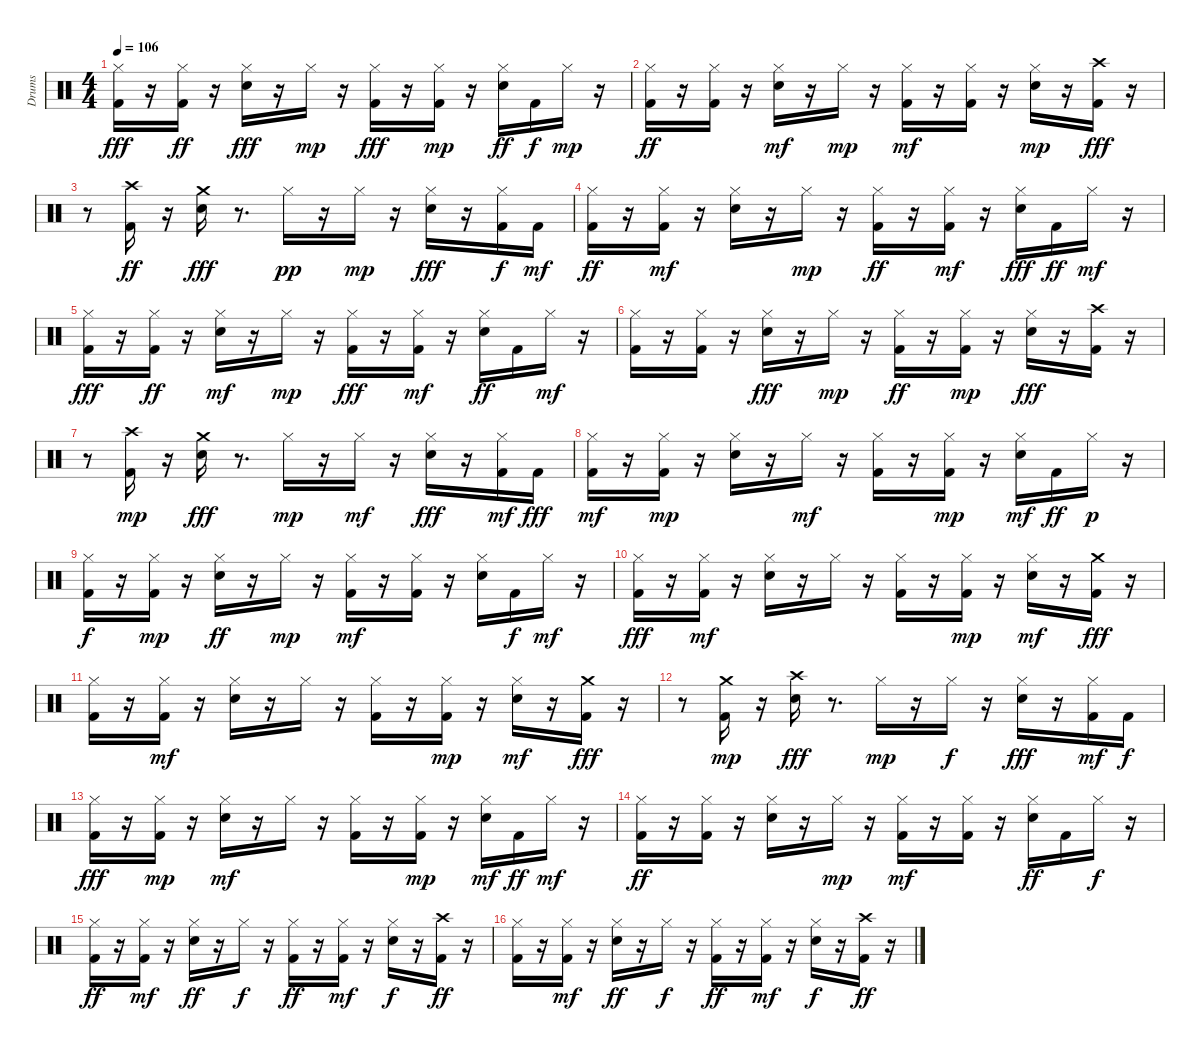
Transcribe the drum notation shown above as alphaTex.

\track ("Drums" "Drums") {instrument percussion}
\staff {score}
\articulation defaults
\ts (4 4)
\tempo 106
\clef neutral
\ks c
("Hi-Hat (closed)" "Kick (hit) 2").16{dy fff} r.16 ("Hi-Hat (closed)" "Kick (hit) 2").16{dy ff} r.16 ("Hi-Hat (closed)" "Snare (hit) 2").16{dy fff} r.16 "Hi-Hat (closed)".16{dy mp} r.16 ("Hi-Hat (closed)" "Kick (hit) 2").16{dy fff} r.16 ("Kick (hit) 2" "Hi-Hat (closed)").16{dy mp} r.16 ("Hi-Hat (closed)" "Snare (hit) 2").16{dy ff} "Kick (hit) 2".16{dy f} "Hi-Hat (closed)".16{dy mp} r.16 |
("Hi-Hat (closed)" "Kick (hit) 2").16{dy ff} r.16 ("Hi-Hat (closed)" "Kick (hit) 2").16 r.16 ("Snare (hit) 2" "Hi-Hat (closed)").16{dy mf} r.16 "Hi-Hat (closed)".16{dy mp} r.16 ("Kick (hit) 2" "Hi-Hat (closed)").16{dy mf} r.16 ("Kick (hit) 2" "Hi-Hat (closed)").16 r.16 ("Snare (hit) 2" "Hi-Hat (closed)").16{dy mp} r.16 ("Crash high (hit)" "Kick (hit) 2").16{dy fff} r.16 |
r.8 ("Crash high (hit)" "Kick (hit) 2").16{dy ff} r.16 ("Crash medium (hit)" "Snare (hit) 2").16{dy fff} r.8{d} "Hi-Hat (closed)".16{dy pp} r.16 "Hi-Hat (closed)".16{dy mp} r.16 ("Hi-Hat (closed)" "Snare (hit) 2").16{dy fff} r.16 ("Kick (hit) 2" "Hi-Hat (closed)").16{dy f} "Kick (hit) 2".16{dy mf} |
("Kick (hit) 2" "Hi-Hat (closed)").16{dy ff} r.16 ("Kick (hit) 2" "Hi-Hat (closed)").16{dy mf} r.16 ("Snare (hit) 2" "Hi-Hat (closed)").16 r.16 "Hi-Hat (closed)".16{dy mp} r.16 ("Hi-Hat (closed)" "Kick (hit) 2").16{dy ff} r.16 ("Hi-Hat (closed)" "Kick (hit) 2").16{dy mf} r.16 ("Snare (hit) 2" "Hi-Hat (closed)").16{dy fff} "Kick (hit) 2".16{dy ff} "Hi-Hat (closed)".16{dy mf} r.16 |
("Hi-Hat (closed)" "Kick (hit) 2").16{dy fff} r.16 ("Hi-Hat (closed)" "Kick (hit) 2").16{dy ff} r.16 ("Snare (hit) 2" "Hi-Hat (closed)").16{dy mf} r.16 "Hi-Hat (closed)".16{dy mp} r.16 ("Kick (hit) 2" "Hi-Hat (closed)").16{dy fff} r.16 ("Kick (hit) 2" "Hi-Hat (closed)").16{dy mf} r.16 ("Snare (hit) 2" "Hi-Hat (closed)").16{dy ff} "Kick (hit) 2".16 "Hi-Hat (closed)".16{dy mf} r.16 |
("Kick (hit) 2" "Hi-Hat (closed)").16 r.16 ("Kick (hit) 2" "Hi-Hat (closed)").16 r.16 ("Snare (hit) 2" "Hi-Hat (closed)").16{dy fff} r.16 "Hi-Hat (closed)".16{dy mp} r.16 ("Kick (hit) 2" "Hi-Hat (closed)").16{dy ff} r.16 ("Hi-Hat (closed)" "Kick (hit) 2").16{dy mp} r.16 ("Snare (hit) 2" "Hi-Hat (closed)").16{dy fff} r.16 ("Crash high (hit)" "Kick (hit) 2").16 r.16 |
r.8 ("Kick (hit) 2" "Crash high (hit)").16{dy mp} r.16 ("Crash medium (hit)" "Snare (hit) 2").16{dy fff} r.8{d} "Hi-Hat (closed)".16{dy mp} r.16 "Hi-Hat (closed)".16{dy mf} r.16 ("Snare (hit) 2" "Hi-Hat (closed)").16{dy fff} r.16 ("Kick (hit) 2" "Hi-Hat (closed)").16{dy mf} "Kick (hit) 2".16{dy fff} |
("Kick (hit) 2" "Hi-Hat (closed)").16{dy mf} r.16 ("Kick (hit) 2" "Hi-Hat (closed)").16{dy mp} r.16 ("Snare (hit) 2" "Hi-Hat (closed)").16 r.16 "Hi-Hat (closed)".16{dy mf} r.16 ("Hi-Hat (closed)" "Kick (hit) 2").16 r.16 ("Hi-Hat (closed)" "Kick (hit) 2").16{dy mp} r.16 ("Hi-Hat (closed)" "Snare (hit) 2").16{dy mf} "Kick (hit) 2".16{dy ff} "Hi-Hat (closed)".16{dy p} r.16 |
("Hi-Hat (closed)" "Kick (hit) 2").16{dy f} r.16 ("Kick (hit) 2" "Hi-Hat (closed)").16{dy mp} r.16 ("Snare (hit) 2" "Hi-Hat (closed)").16{dy ff} r.16 "Hi-Hat (closed)".16{dy mp} r.16 ("Kick (hit) 2" "Hi-Hat (closed)").16{dy mf} r.16 ("Kick (hit) 2" "Hi-Hat (closed)").16 r.16 ("Snare (hit) 2" "Hi-Hat (closed)").16 "Kick (hit) 2".16{dy f} "Hi-Hat (closed)".16{dy mf} r.16 |
("Kick (hit) 2" "Hi-Hat (closed)").16{dy fff} r.16 ("Kick (hit) 2" "Hi-Hat (closed)").16{dy mf} r.16 ("Snare (hit) 2" "Hi-Hat (closed)").16 r.16 "Hi-Hat (closed)".16 r.16 ("Kick (hit) 2" "Hi-Hat (closed)").16 r.16 ("Kick (hit) 2" "Hi-Hat (closed)").16{dy mp} r.16 ("Snare (hit) 2" "Hi-Hat (closed)").16{dy mf} r.16 ("Kick (hit) 2" "Crash medium (hit)").16{dy fff} r.16 |
("Kick (hit) 2" "Hi-Hat (closed)").16 r.16 ("Kick (hit) 2" "Hi-Hat (closed)").16{dy mf} r.16 ("Snare (hit) 2" "Hi-Hat (closed)").16 r.16 "Hi-Hat (closed)".16 r.16 ("Kick (hit) 2" "Hi-Hat (closed)").16 r.16 ("Kick (hit) 2" "Hi-Hat (closed)").16{dy mp} r.16 ("Snare (hit) 2" "Hi-Hat (closed)").16{dy mf} r.16 ("Kick (hit) 2" "Crash medium (hit)").16{dy fff} r.16 |
r.8 ("Kick (hit) 2" "Crash medium (hit)").16{dy mp} r.16 ("Crash high (hit)" "Snare (hit) 2").16{dy fff} r.8{d} "Hi-Hat (closed)".16{dy mp} r.16 "Hi-Hat (closed)".16{dy f} r.16 ("Hi-Hat (closed)" "Snare (hit) 2").16{dy fff} r.16 ("Hi-Hat (closed)" "Kick (hit) 2").16{dy mf} "Kick (hit) 2".16{dy f} |
("Hi-Hat (closed)" "Kick (hit) 2").16{dy fff} r.16 ("Kick (hit) 2" "Hi-Hat (closed)").16{dy mp} r.16 ("Snare (hit) 2" "Hi-Hat (closed)").16{dy mf} r.16 "Hi-Hat (closed)".16 r.16 ("Kick (hit) 2" "Hi-Hat (closed)").16 r.16 ("Hi-Hat (closed)" "Kick (hit) 2").16{dy mp} r.16 ("Snare (hit) 2" "Hi-Hat (closed)").16{dy mf} "Kick (hit) 2".16{dy ff} "Hi-Hat (closed)".16{dy mf} r.16 |
("Hi-Hat (closed)" "Kick (hit) 2").16{dy ff} r.16 ("Hi-Hat (closed)" "Kick (hit) 2").16 r.16 ("Snare (hit) 2" "Hi-Hat (closed)").16 r.16 "Hi-Hat (closed)".16{dy mp} r.16 ("Kick (hit) 2" "Hi-Hat (closed)").16{dy mf} r.16 ("Kick (hit) 2" "Hi-Hat (closed)").16 r.16 ("Snare (hit) 2" "Hi-Hat (closed)").16{dy ff} "Kick (hit) 2".16 "Hi-Hat (closed)".16{dy f} r.16 |
("Kick (hit) 2" "Hi-Hat (closed)").16{dy ff} r.16 ("Kick (hit) 2" "Hi-Hat (closed)").16{dy mf} r.16 ("Snare (hit) 2" "Hi-Hat (closed)").16{dy ff} r.16 "Hi-Hat (closed)".16{dy f} r.16 ("Kick (hit) 2" "Hi-Hat (closed)").16{dy ff} r.16 ("Kick (hit) 2" "Hi-Hat (closed)").16{dy mf} r.16 ("Hi-Hat (closed)" "Snare (hit) 2").16{dy f} r.16 ("Kick (hit) 2" "Crash high (hit)").16{dy ff} r.16 |
("Kick (hit) 2" "Hi-Hat (closed)").16 r.16 ("Kick (hit) 2" "Hi-Hat (closed)").16{dy mf} r.16 ("Snare (hit) 2" "Hi-Hat (closed)").16{dy ff} r.16 "Hi-Hat (closed)".16{dy f} r.16 ("Kick (hit) 2" "Hi-Hat (closed)").16{dy ff} r.16 ("Kick (hit) 2" "Hi-Hat (closed)").16{dy mf} r.16 ("Hi-Hat (closed)" "Snare (hit) 2").16{dy f} r.16 ("Kick (hit) 2" "Crash high (hit)").16{dy ff} r.16
